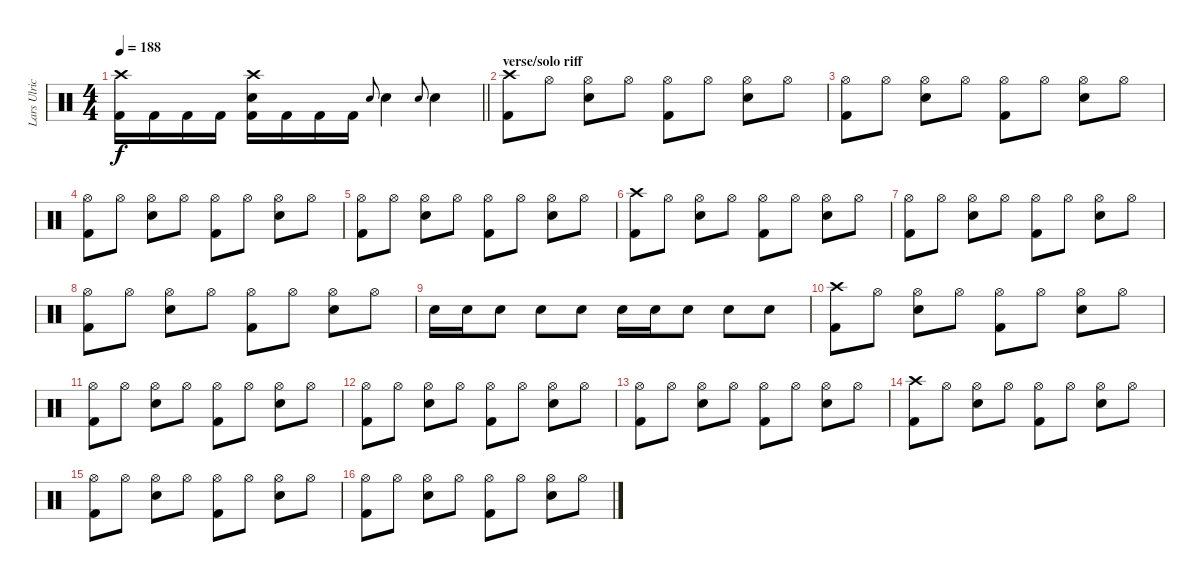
\track ("Lars Ulrich" "Lars Ulric") {instrument percussion}
\staff {score}
\articulation defaults
\ts (4 4)
\tempo 188
\clef neutral
\barLineRight lightlight
\ks c
("Crash high (hit)" "Kick (hit) 2").16{dy f} "Kick (hit) 2".16 "Kick (hit) 2".16 "Kick (hit) 2".16 ("Crash high (hit)" "Snare (hit) 2" "Kick (hit) 2").16 "Kick (hit) 2".16 "Kick (hit) 2".16 "Kick (hit) 2".16 "Snare (hit) 2".8{gr onbeat} "Snare (hit) 2".4 "Snare (hit) 2".8{gr onbeat} "Snare (hit) 2".4 |
\section ("" "verse/solo riff")
("Crash high (hit)" "Kick (hit) 2").8 "Hi-Hat (open)".8 ("Hi-Hat (open)" "Snare (hit) 2").8 "Hi-Hat (open)".8 ("Hi-Hat (open)" "Kick (hit) 2").8 "Hi-Hat (open)".8 ("Hi-Hat (open)" "Snare (hit) 2").8 "Hi-Hat (open)".8 |
("Hi-Hat (open)" "Kick (hit) 2").8 "Hi-Hat (open)".8 ("Hi-Hat (open)" "Snare (hit) 2").8 "Hi-Hat (open)".8 ("Hi-Hat (open)" "Kick (hit) 2").8 "Hi-Hat (open)".8 ("Hi-Hat (open)" "Snare (hit) 2").8 "Hi-Hat (open)".8 |
("Hi-Hat (open)" "Kick (hit) 2").8 "Hi-Hat (open)".8 ("Hi-Hat (open)" "Snare (hit) 2").8 "Hi-Hat (open)".8 ("Hi-Hat (open)" "Kick (hit) 2").8 "Hi-Hat (open)".8 ("Hi-Hat (open)" "Snare (hit) 2").8 "Hi-Hat (open)".8 |
("Hi-Hat (open)" "Kick (hit) 2").8 "Hi-Hat (open)".8 ("Hi-Hat (open)" "Snare (hit) 2").8 "Hi-Hat (open)".8 ("Hi-Hat (open)" "Kick (hit) 2").8 "Hi-Hat (open)".8 ("Hi-Hat (open)" "Snare (hit) 2").8 "Hi-Hat (open)".8 |
("Crash high (hit)" "Kick (hit) 2").8 "Hi-Hat (open)".8 ("Hi-Hat (open)" "Snare (hit) 2").8 "Hi-Hat (open)".8 ("Hi-Hat (open)" "Kick (hit) 2").8 "Hi-Hat (open)".8 ("Hi-Hat (open)" "Snare (hit) 2").8 "Hi-Hat (open)".8 |
("Hi-Hat (open)" "Kick (hit) 2").8 "Hi-Hat (open)".8 ("Hi-Hat (open)" "Snare (hit) 2").8 "Hi-Hat (open)".8 ("Hi-Hat (open)" "Kick (hit) 2").8 "Hi-Hat (open)".8 ("Hi-Hat (open)" "Snare (hit) 2").8 "Hi-Hat (open)".8 |
("Hi-Hat (open)" "Kick (hit) 2").8 "Hi-Hat (open)".8 ("Hi-Hat (open)" "Snare (hit) 2").8 "Hi-Hat (open)".8 ("Hi-Hat (open)" "Kick (hit) 2").8 "Hi-Hat (open)".8 ("Hi-Hat (open)" "Snare (hit) 2").8 "Hi-Hat (open)".8 |
"Snare (hit) 2".16 "Snare (hit) 2".16 "Snare (hit) 2".8 "Snare (hit) 2".8 "Snare (hit) 2".8 "Snare (hit) 2".16 "Snare (hit) 2".16 "Snare (hit) 2".8 "Snare (hit) 2".8 "Snare (hit) 2".8 |
("Crash high (hit)" "Kick (hit) 2").8 "Hi-Hat (open)".8 ("Hi-Hat (open)" "Snare (hit) 2").8 "Hi-Hat (open)".8 ("Hi-Hat (open)" "Kick (hit) 2").8 "Hi-Hat (open)".8 ("Hi-Hat (open)" "Snare (hit) 2").8 "Hi-Hat (open)".8 |
("Hi-Hat (open)" "Kick (hit) 2").8 "Hi-Hat (open)".8 ("Hi-Hat (open)" "Snare (hit) 2").8 "Hi-Hat (open)".8 ("Hi-Hat (open)" "Kick (hit) 2").8 "Hi-Hat (open)".8 ("Hi-Hat (open)" "Snare (hit) 2").8 "Hi-Hat (open)".8 |
("Hi-Hat (open)" "Kick (hit) 2").8 "Hi-Hat (open)".8 ("Hi-Hat (open)" "Snare (hit) 2").8 "Hi-Hat (open)".8 ("Hi-Hat (open)" "Kick (hit) 2").8 "Hi-Hat (open)".8 ("Hi-Hat (open)" "Snare (hit) 2").8 "Hi-Hat (open)".8 |
("Hi-Hat (open)" "Kick (hit) 2").8 "Hi-Hat (open)".8 ("Hi-Hat (open)" "Snare (hit) 2").8 "Hi-Hat (open)".8 ("Hi-Hat (open)" "Kick (hit) 2").8 "Hi-Hat (open)".8 ("Hi-Hat (open)" "Snare (hit) 2").8 "Hi-Hat (open)".8 |
("Crash high (hit)" "Kick (hit) 2").8 "Hi-Hat (open)".8 ("Hi-Hat (open)" "Snare (hit) 2").8 "Hi-Hat (open)".8 ("Hi-Hat (open)" "Kick (hit) 2").8 "Hi-Hat (open)".8 ("Hi-Hat (open)" "Snare (hit) 2").8 "Hi-Hat (open)".8 |
("Hi-Hat (open)" "Kick (hit) 2").8 "Hi-Hat (open)".8 ("Hi-Hat (open)" "Snare (hit) 2").8 "Hi-Hat (open)".8 ("Hi-Hat (open)" "Kick (hit) 2").8 "Hi-Hat (open)".8 ("Hi-Hat (open)" "Snare (hit) 2").8 "Hi-Hat (open)".8 |
("Hi-Hat (open)" "Kick (hit) 2").8 "Hi-Hat (open)".8 ("Hi-Hat (open)" "Snare (hit) 2").8 "Hi-Hat (open)".8 ("Hi-Hat (open)" "Kick (hit) 2").8 "Hi-Hat (open)".8 ("Hi-Hat (open)" "Snare (hit) 2").8 "Hi-Hat (open)".8
